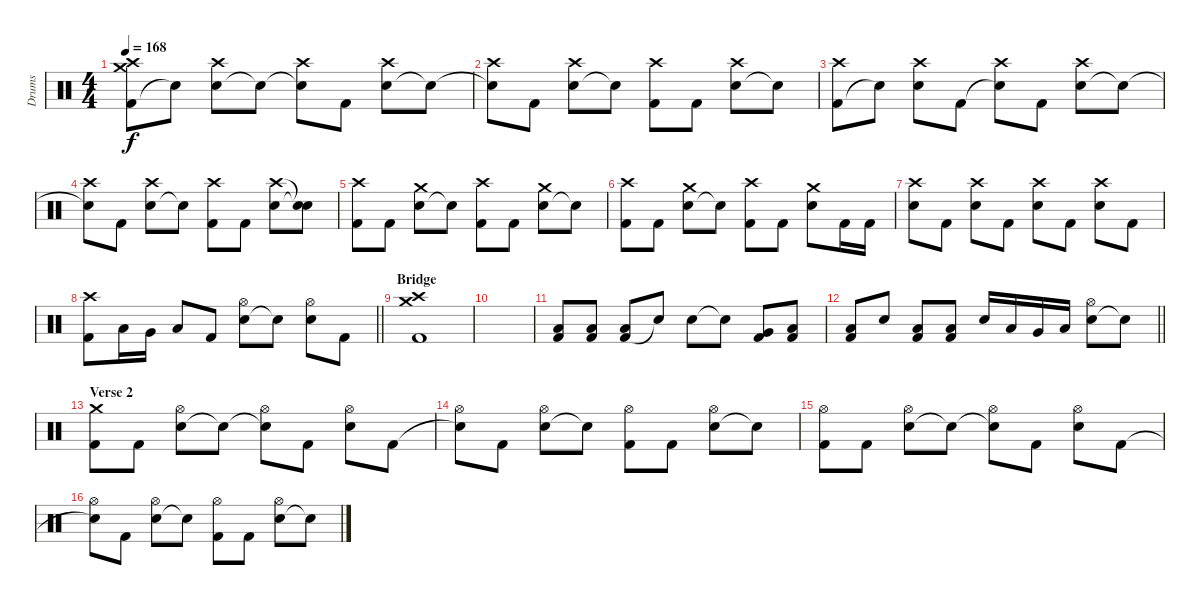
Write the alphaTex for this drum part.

\track ("Drums" "Drums") {instrument percussion}
\staff {score}
\articulation defaults
\ts (4 4)
\tempo 168
\clef neutral
\ks c
("Kick (hit) 2" "Crash medium (hit)" "Crash high (hit)").8{dy f} "Snare (hit)"{t}.8 ("Electric Snare (hit)" "Crash high (hit)").8 "Snare (hit)"{t}.8 ("Snare (hit)"{t} "Crash high (hit)").8 "Kick (hit) 2".8 ("Electric Snare (hit)" "Crash high (hit)").8 "Snare (hit)"{t}.8 |
("Snare (hit)"{t} "Crash high (hit)").8 "Kick (hit) 2".8 ("Electric Snare (hit)" "Crash high (hit)").8 "Snare (hit)"{t}.8 ("Kick (hit) 2" "Crash high (hit)").8 "Kick (hit) 2".8 ("Electric Snare (hit)" "Crash high (hit)").8 "Snare (hit)"{t}.8 |
("Kick (hit) 2" "Crash high (hit)").8 "Snare (hit)"{t}.8 ("Electric Snare (hit)" "Crash high (hit)").8 "Kick (hit) 2".8 ("Snare (hit)"{t} "Crash high (hit)").8 "Kick (hit) 2".8 ("Electric Snare (hit)" "Crash high (hit)").8 "Snare (hit)"{t}.8 |
("Snare (hit)"{t} "Crash high (hit)").8 "Kick (hit) 2".8 ("Electric Snare (hit)" "Crash high (hit)").8 "Snare (hit)"{t}.8 ("Kick (hit) 2" "Crash high (hit)").8 "Kick (hit) 2".8 ("Electric Snare (hit)" "Crash high (hit)").8 ("Snare (hit)"{t} "Snare (hit)"{t}).8 |
("Kick (hit) 2" "Crash high (hit)").8 "Kick (hit) 2".8 ("Electric Snare (hit)" "Crash medium (hit)").8 "Snare (hit)"{t}.8 ("Kick (hit) 2" "Crash high (hit)").8 "Kick (hit) 2".8 ("Electric Snare (hit)" "Crash medium (hit)").8 "Snare (hit)"{t}.8 |
("Kick (hit) 2" "Crash high (hit)").8 "Kick (hit) 2".8 ("Electric Snare (hit)" "Crash medium (hit)").8 "Snare (hit)"{t}.8 ("Kick (hit) 2" "Crash high (hit)").8 "Kick (hit) 2".8 ("Electric Snare (hit)" "Crash medium (hit)").8 "Kick (hit) 2".16 "Kick (hit) 2".16 |
("Electric Snare (hit)" "Crash high (hit)").8 "Kick (hit) 2".8 ("Electric Snare (hit)" "Crash high (hit)").8 "Kick (hit) 2".8 ("Electric Snare (hit)" "Crash high (hit)").8 "Kick (hit) 2".8 ("Electric Snare (hit)" "Crash high (hit)").8 "Kick (hit) 2".8 |
\barLineRight lightlight
("Kick (hit) 2" "Crash high (hit)").8 "Low Floor Tom (hit)".16 "Very Low Tom (hit)".16 "Low Floor Tom (hit)".8 "Kick (hit) 2".8 ("Electric Snare (hit)" "Hi-Hat (open)").8 "Snare (hit)"{t}.8 ("Electric Snare (hit)" "Hi-Hat (open)").8 "Kick (hit) 2".8 |
\section ("" "Bridge")
("Kick (hit) 2" "Crash medium (hit)" "Crash high (hit)").1 |
|
("Kick (hit) 2" "Low Floor Tom (hit)").8 ("Kick (hit) 2" "Low Floor Tom (hit)").8 ("Kick (hit) 2" "Low Floor Tom (hit)").8 "Snare (hit)"{t}.8 "Electric Snare (hit)".8 "Snare (hit)"{t}.8 ("Kick (hit) 2" "Very Low Tom (hit)").8 ("Kick (hit) 2" "Low Tom (hit)").8 |
\barLineRight lightlight
("Kick (hit) 2" "Low Floor Tom (hit)").8 "Electric Snare (hit)".8 ("Kick (hit) 2" "Low Floor Tom (hit)").8 ("Kick (hit) 2" "Low Floor Tom (hit)").8 "Electric Snare (hit)".16 "Low Tom (hit)".16 "Very Low Tom (hit)".16 "Low Floor Tom (hit)".16 ("Electric Snare (hit)" "Hi-Hat (open)").8 "Snare (hit)"{t}.8 |
\section ("" "Verse 2")
("Kick (hit) 2" "Crash medium (hit)").8 "Kick (hit) 2".8 ("Electric Snare (hit)" "Hi-Hat (open)").8 "Snare (hit)"{t}.8 ("Snare (hit)"{t} "Hi-Hat (open)").8 "Kick (hit) 2".8 ("Electric Snare (hit)" "Hi-Hat (open)").8 "Kick (hit) 2".8 |
("Snare (hit)"{t} "Hi-Hat (open)").8 "Kick (hit) 2".8 ("Electric Snare (hit)" "Hi-Hat (open)").8 "Snare (hit)"{t}.8 ("Kick (hit) 2" "Hi-Hat (open)").8 "Kick (hit) 2".8 ("Electric Snare (hit)" "Hi-Hat (open)").8 "Snare (hit)"{t}.8 |
("Kick (hit) 2" "Hi-Hat (open)").8 "Kick (hit) 2".8 ("Electric Snare (hit)" "Hi-Hat (open)").8 "Snare (hit)"{t}.8 ("Snare (hit)"{t} "Hi-Hat (open)").8 "Kick (hit) 2".8 ("Electric Snare (hit)" "Hi-Hat (open)").8 "Kick (hit) 2".8 |
("Snare (hit)"{t} "Hi-Hat (open)").8 "Kick (hit) 2".8 ("Electric Snare (hit)" "Hi-Hat (open)").8 "Snare (hit)"{t}.8 ("Kick (hit) 2" "Hi-Hat (open)").8 "Kick (hit) 2".8 ("Electric Snare (hit)" "Hi-Hat (open)").8 "Snare (hit)"{t}.8
